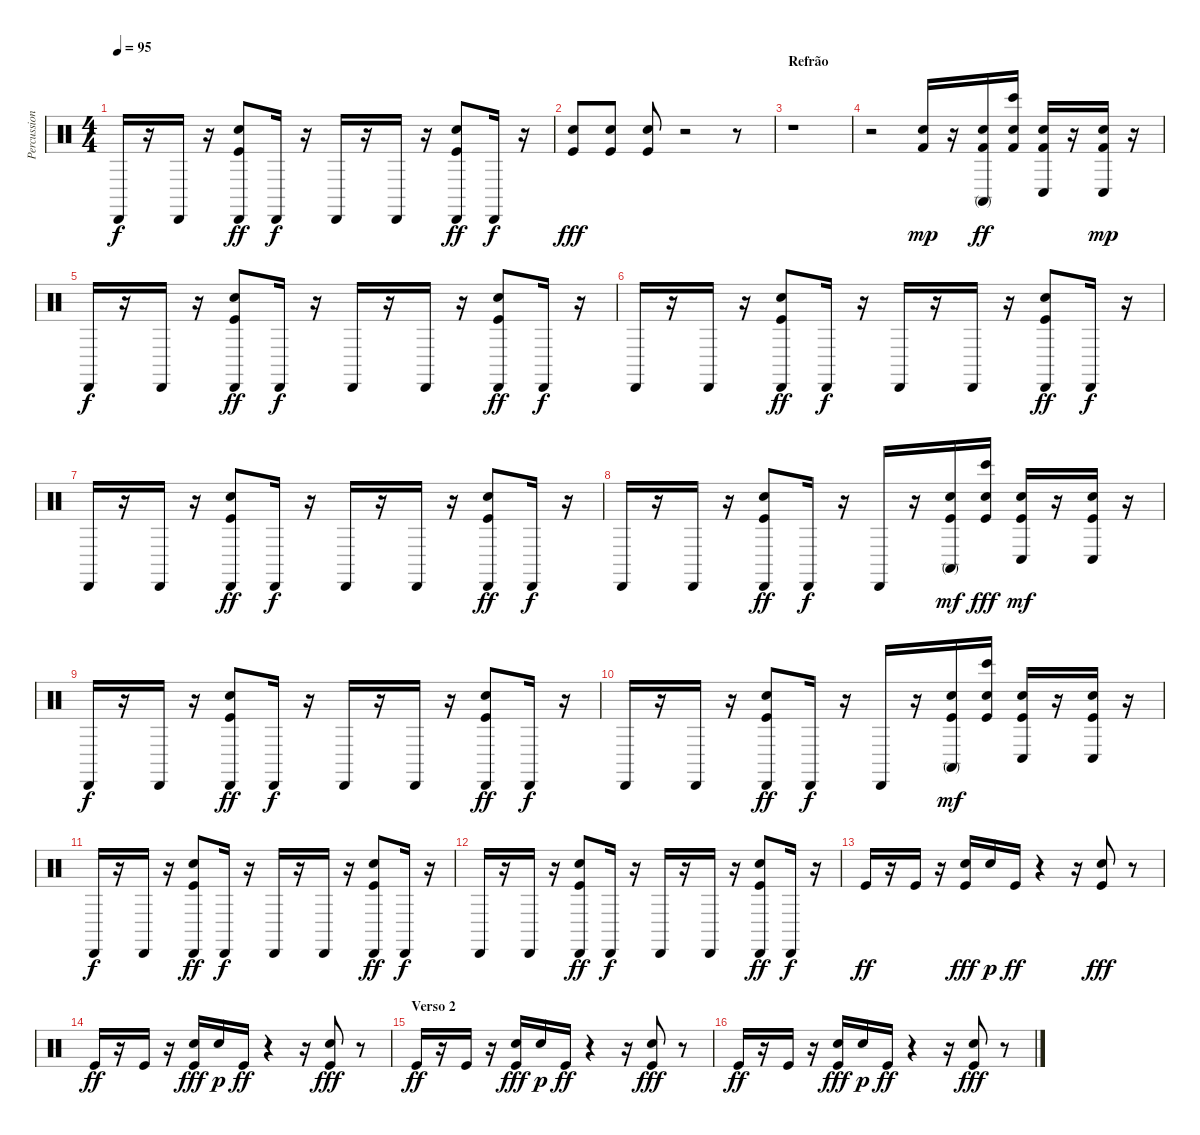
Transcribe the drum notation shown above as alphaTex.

\track ("Percussion" "Percussion") {instrument percussion}
\staff {score}
\articulation defaults
\ts (4 4)
\tempo 95
\clef neutral
\ks c "Cabasa (hit)".16{dy f}
r.16 "Cabasa (hit)".16 r.16 ("Snare (hit) 2" "Kick (hit)" "Cabasa (hit)").8{dy ff} "Cabasa (hit)".16{dy f} r.16 "Cabasa (hit)".16 r.16 "Cabasa (hit)".16 r.16 ("Snare (hit) 2" "Kick (hit)" "Cabasa (hit)").8{dy ff} "Cabasa (hit)".16{dy f} r.16 |
("Kick (hit)" "Snare (hit) 2").8{dy fff} ("Kick (hit)" "Snare (hit) 2").8 ("Kick (hit)" "Snare (hit) 2").8 r.2 r.8 |
\section ("" "Refrão")
r.1 |
r.2 ("Hand Clap (hit)" "Kick (hit) 2").16{dy mp} r.16 ("Hand Clap (hit)" "Kick (hit) 2" "Conga high (mute)").16{dy ff} ("Hand Clap (hit)" "Kick (hit) 2" "Bongo High (hit)").16 ("Hand Clap (hit)" "Kick (hit) 2" "Conga low (hit)").16 r.16 ("Conga low (hit)" "Hand Clap (hit)" "Kick (hit) 2").16{dy mp} r.16 |
"Cabasa (hit)".16{dy f} r.16 "Cabasa (hit)".16 r.16 ("Snare (hit) 2" "Kick (hit)" "Cabasa (hit)").8{dy ff} "Cabasa (hit)".16{dy f} r.16 "Cabasa (hit)".16 r.16 "Cabasa (hit)".16 r.16 ("Snare (hit) 2" "Kick (hit)" "Cabasa (hit)").8{dy ff} "Cabasa (hit)".16{dy f} r.16 |
"Cabasa (hit)".16 r.16 "Cabasa (hit)".16 r.16 ("Snare (hit) 2" "Kick (hit)" "Cabasa (hit)").8{dy ff} "Cabasa (hit)".16{dy f} r.16 "Cabasa (hit)".16 r.16 "Cabasa (hit)".16 r.16 ("Snare (hit) 2" "Kick (hit)" "Cabasa (hit)").8{dy ff} "Cabasa (hit)".16{dy f} r.16 |
"Cabasa (hit)".16 r.16 "Cabasa (hit)".16 r.16 ("Snare (hit) 2" "Kick (hit)" "Cabasa (hit)").8{dy ff} "Cabasa (hit)".16{dy f} r.16 "Cabasa (hit)".16 r.16 "Cabasa (hit)".16 r.16 ("Snare (hit) 2" "Kick (hit)" "Cabasa (hit)").8{dy ff} "Cabasa (hit)".16{dy f} r.16 |
"Cabasa (hit)".16 r.16 "Cabasa (hit)".16 r.16 ("Snare (hit) 2" "Kick (hit)" "Cabasa (hit)").8{dy ff} "Cabasa (hit)".16{dy f} r.16 "Cabasa (hit)".16 r.16 ("Conga high (mute)" "Snare (hit) 2" "Kick (hit)").16{dy mf} ("Kick (hit)" "Snare (hit) 2" "Bongo High (hit)").16{dy fff} ("Conga low (hit)" "Snare (hit) 2" "Kick (hit)").16{dy mf} r.16 ("Conga low (hit)" "Snare (hit) 2" "Kick (hit)").16 r.16 |
"Cabasa (hit)".16{dy f} r.16 "Cabasa (hit)".16 r.16 ("Snare (hit) 2" "Kick (hit)" "Cabasa (hit)").8{dy ff} "Cabasa (hit)".16{dy f} r.16 "Cabasa (hit)".16 r.16 "Cabasa (hit)".16 r.16 ("Snare (hit) 2" "Kick (hit)" "Cabasa (hit)").8{dy ff} "Cabasa (hit)".16{dy f} r.16 |
"Cabasa (hit)".16 r.16 "Cabasa (hit)".16 r.16 ("Snare (hit) 2" "Kick (hit)" "Cabasa (hit)").8{dy ff} "Cabasa (hit)".16{dy f} r.16 "Cabasa (hit)".16 r.16 ("Conga high (mute)" "Snare (hit) 2" "Kick (hit)").16{dy mf} ("Bongo High (hit)" "Snare (hit) 2" "Kick (hit)").16 ("Conga low (hit)" "Snare (hit) 2" "Kick (hit)").16 r.16 ("Conga low (hit)" "Snare (hit) 2" "Kick (hit)").16 r.16 |
"Cabasa (hit)".16{dy f} r.16 "Cabasa (hit)".16 r.16 ("Snare (hit) 2" "Kick (hit)" "Cabasa (hit)").8{dy ff} "Cabasa (hit)".16{dy f} r.16 "Cabasa (hit)".16 r.16 "Cabasa (hit)".16 r.16 ("Snare (hit) 2" "Kick (hit)" "Cabasa (hit)").8{dy ff} "Cabasa (hit)".16{dy f} r.16 |
"Cabasa (hit)".16 r.16 "Cabasa (hit)".16 r.16 ("Snare (hit) 2" "Kick (hit)" "Cabasa (hit)").8{dy ff} "Cabasa (hit)".16{dy f} r.16 "Cabasa (hit)".16 r.16 "Cabasa (hit)".16 r.16 ("Snare (hit) 2" "Kick (hit)" "Cabasa (hit)").8{dy ff} "Cabasa (hit)".16{dy f} r.16 |
"Kick (hit)".16{dy ff} r.16 "Kick (hit)".16 r.16 ("Kick (hit)" "Snare (hit) 2").16{dy fff} "Snare (hit) 2".16{dy p} "Kick (hit)".16{dy ff} r.4 r.16 ("Snare (hit) 2" "Kick (hit)").8{dy fff} r.8 |
"Kick (hit)".16{dy ff} r.16 "Kick (hit)".16 r.16 ("Kick (hit)" "Snare (hit) 2").16{dy fff} "Hand Clap (hit)".16{dy p} "Kick (hit)".16{dy ff} r.4 r.16 ("Snare (hit) 2" "Kick (hit)").8{dy fff} r.8 |
\section ("" "Verso 2")
"Kick (hit)".16{dy ff} r.16 "Kick (hit)".16 r.16 ("Kick (hit)" "Snare (hit) 2").16{dy fff} "Hand Clap (hit)".16{dy p} "Kick (hit)".16{dy ff} r.4 r.16 ("Snare (hit) 2" "Kick (hit)").8{dy fff} r.8 |
"Kick (hit)".16{dy ff} r.16 "Kick (hit)".16 r.16 ("Kick (hit)" "Snare (hit) 2").16{dy fff} "Hand Clap (hit)".16{dy p} "Kick (hit)".16{dy ff} r.4 r.16 ("Snare (hit) 2" "Kick (hit)").8{dy fff} r.8
